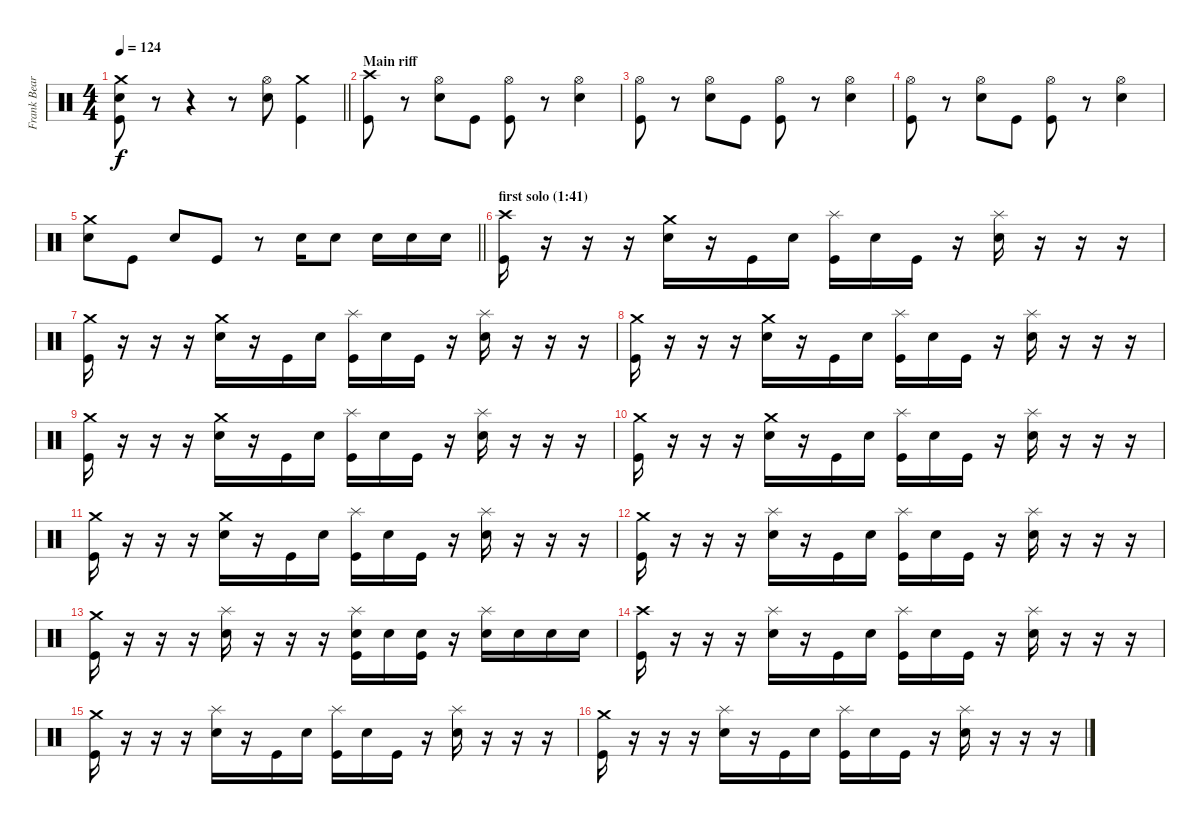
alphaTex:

\track ("Frank Beard" "Frank Bear") {instrument percussion}
\staff {score}
\articulation defaults
\ts (4 4)
\tempo 124
\clef neutral
\barLineRight lightlight
\ks c
("Crash medium (hit)" "Electric Snare (hit)"{t} "Kick (hit)").8{dy f} r.8 r.4 r.8 ("Hi-Hat (open)" "Electric Snare (hit)").8 ("Crash medium (hit)" "Kick (hit)").4 |
\section ("" "Main riff ")
("Crash high (hit)" "Kick (hit)").8 r.8 ("Hi-Hat (open)" "Electric Snare (hit)").8 "Kick (hit)".8 ("Hi-Hat (open)" "Kick (hit)").8 r.8 ("Hi-Hat (open)" "Electric Snare (hit)").4 |
("Hi-Hat (open)" "Kick (hit)").8 r.8 ("Hi-Hat (open)" "Electric Snare (hit)").8 "Kick (hit)".8 ("Hi-Hat (open)" "Kick (hit)").8 r.8 ("Hi-Hat (open)" "Electric Snare (hit)").4 |
("Hi-Hat (open)" "Kick (hit)").8 r.8 ("Hi-Hat (open)" "Electric Snare (hit)").8 "Kick (hit)".8 ("Hi-Hat (open)" "Kick (hit)").8 r.8 ("Hi-Hat (open)" "Electric Snare (hit)").4 |
\barLineRight lightlight
("Crash medium (hit)" "Electric Snare (hit)").8 "Kick (hit)".8 "Electric Snare (hit)".8 "Kick (hit)".8 r.8 "Electric Snare (hit)".16 "Electric Snare (hit)".8 "Electric Snare (hit)".16 "Electric Snare (hit)".16 "Electric Snare (hit)".16 |
\section ("" "first solo (1:41)")
("Crash high (hit)" "Kick (hit)").16 r.16 r.16 r.16 ("Crash medium (hit)" "Electric Snare (hit)").16 r.16 "Kick (hit)".16 "Electric Snare (hit)".16 ("Splash (hit)" "Kick (hit)").16 "Electric Snare (hit)".16 "Kick (hit)".16 r.16 ("Splash (hit)" "Electric Snare (hit)").16 r.16 r.16 r.16 |
("Crash medium (hit)" "Kick (hit)").16 r.16 r.16 r.16 ("Crash medium (hit)" "Electric Snare (hit)").16 r.16 "Kick (hit)".16 "Electric Snare (hit)".16 ("Splash (hit)" "Kick (hit)").16 "Electric Snare (hit)".16 "Kick (hit)".16 r.16 ("Splash (hit)" "Electric Snare (hit)").16 r.16 r.16 r.16 |
("Crash medium (hit)" "Kick (hit)").16 r.16 r.16 r.16 ("Crash medium (hit)" "Electric Snare (hit)").16 r.16 "Kick (hit)".16 "Electric Snare (hit)".16 ("Splash (hit)" "Kick (hit)").16 "Electric Snare (hit)".16 "Kick (hit)".16 r.16 ("Splash (hit)" "Electric Snare (hit)").16 r.16 r.16 r.16 |
("Crash medium (hit)" "Kick (hit)").16 r.16 r.16 r.16 ("Crash medium (hit)" "Electric Snare (hit)").16 r.16 "Kick (hit)".16 "Electric Snare (hit)".16 ("Splash (hit)" "Kick (hit)").16 "Electric Snare (hit)".16 "Kick (hit)".16 r.16 ("Splash (hit)" "Electric Snare (hit)").16 r.16 r.16 r.16 |
("Crash medium (hit)" "Kick (hit)").16 r.16 r.16 r.16 ("Crash medium (hit)" "Electric Snare (hit)").16 r.16 "Kick (hit)".16 "Electric Snare (hit)".16 ("Splash (hit)" "Kick (hit)").16 "Electric Snare (hit)".16 "Kick (hit)".16 r.16 ("Splash (hit)" "Electric Snare (hit)").16 r.16 r.16 r.16 |
("Crash medium (hit)" "Kick (hit)").16 r.16 r.16 r.16 ("Crash medium (hit)" "Electric Snare (hit)").16 r.16 "Kick (hit)".16 "Electric Snare (hit)".16 ("Splash (hit)" "Kick (hit)").16 "Electric Snare (hit)".16 "Kick (hit)".16 r.16 ("Splash (hit)" "Electric Snare (hit)").16 r.16 r.16 r.16 |
("Crash medium (hit)" "Kick (hit)").16 r.16 r.16 r.16 ("Splash (hit)" "Electric Snare (hit)").16 r.16 "Kick (hit)".16 "Electric Snare (hit)".16 ("Splash (hit)" "Kick (hit)").16 "Electric Snare (hit)".16 "Kick (hit)".16 r.16 ("Splash (hit)" "Electric Snare (hit)").16 r.16 r.16 r.16 |
("Crash medium (hit)" "Kick (hit)").16 r.16 r.16 r.16 ("Splash (hit)" "Electric Snare (hit)").16 r.16 r.16 r.16 ("Splash (hit)" "Electric Snare (hit)" "Kick (hit)").16 "Electric Snare (hit)".16 ("Electric Snare (hit)" "Kick (hit)").16 r.16 ("Splash (hit)" "Electric Snare (hit)").16 "Electric Snare (hit)".16 "Electric Snare (hit)".16 "Electric Snare (hit)".16 |
("Crash high (hit)" "Kick (hit)").16 r.16 r.16 r.16 ("Splash (hit)" "Electric Snare (hit)").16 r.16 "Kick (hit)".16 "Electric Snare (hit)".16 ("Splash (hit)" "Kick (hit)").16 "Electric Snare (hit)".16 "Kick (hit)".16 r.16 ("Splash (hit)" "Electric Snare (hit)").16 r.16 r.16 r.16 |
("Crash medium (hit)" "Kick (hit)").16 r.16 r.16 r.16 ("Splash (hit)" "Electric Snare (hit)").16 r.16 "Kick (hit)".16 "Electric Snare (hit)".16 ("Splash (hit)" "Kick (hit)").16 "Electric Snare (hit)".16 "Kick (hit)".16 r.16 ("Splash (hit)" "Electric Snare (hit)").16 r.16 r.16 r.16 |
("Crash medium (hit)" "Kick (hit)").16 r.16 r.16 r.16 ("Splash (hit)" "Electric Snare (hit)").16 r.16 "Kick (hit)".16 "Electric Snare (hit)".16 ("Splash (hit)" "Kick (hit)").16 "Electric Snare (hit)".16 "Kick (hit)".16 r.16 ("Splash (hit)" "Electric Snare (hit)").16 r.16 r.16 r.16
